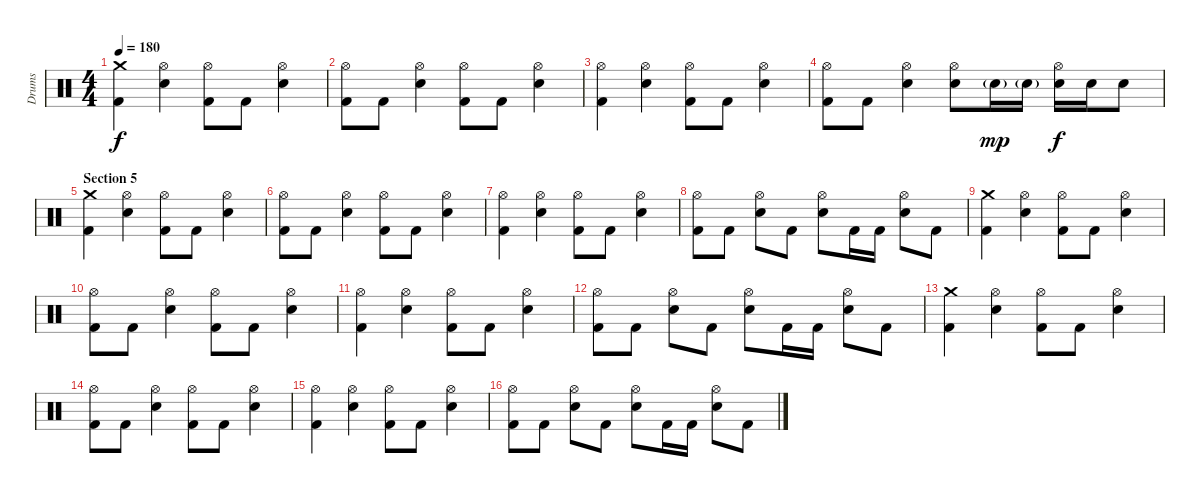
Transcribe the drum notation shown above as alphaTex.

\track ("Drums" "Drums") {instrument percussion}
\staff {score}
\articulation defaults
\ts (4 4)
\tempo 180
\clef neutral
\ks c
("Crash medium (hit)" "Kick (hit) 2").4{dy f} ("Hi-Hat (open)" "Electric Snare (hit)").4 ("Hi-Hat (open)" "Kick (hit) 2").8 "Kick (hit) 2".8 ("Hi-Hat (open)" "Electric Snare (hit)").4 |
("Hi-Hat (open)" "Kick (hit) 2").8 "Kick (hit) 2".8 ("Hi-Hat (open)" "Electric Snare (hit)").4 ("Hi-Hat (open)" "Kick (hit) 2").8 "Kick (hit) 2".8 ("Hi-Hat (open)" "Electric Snare (hit)").4 |
("Hi-Hat (open)" "Kick (hit) 2").4 ("Hi-Hat (open)" "Electric Snare (hit)").4 ("Hi-Hat (open)" "Kick (hit) 2").8 "Kick (hit) 2".8 ("Hi-Hat (open)" "Electric Snare (hit)").4 |
("Hi-Hat (open)" "Kick (hit) 2").8 "Kick (hit) 2".8 ("Hi-Hat (open)" "Electric Snare (hit)").4 ("Hi-Hat (open)" "Electric Snare (hit)").8 "Electric Snare (hit)"{g}.16{dy mp} "Electric Snare (hit)"{g}.16 ("Hi-Hat (open)" "Electric Snare (hit)").16{dy f} "Electric Snare (hit)".16 "Electric Snare (hit)".8 |
\section ("" "Section 5")
("Crash medium (hit)" "Kick (hit) 2").4 ("Hi-Hat (open)" "Electric Snare (hit)").4 ("Hi-Hat (open)" "Kick (hit) 2").8 "Kick (hit) 2".8 ("Hi-Hat (open)" "Electric Snare (hit)").4 |
("Hi-Hat (open)" "Kick (hit) 2").8 "Kick (hit) 2".8 ("Hi-Hat (open)" "Electric Snare (hit)").4 ("Hi-Hat (open)" "Kick (hit) 2").8 "Kick (hit) 2".8 ("Hi-Hat (open)" "Electric Snare (hit)").4 |
("Hi-Hat (open)" "Kick (hit) 2").4 ("Hi-Hat (open)" "Electric Snare (hit)").4 ("Hi-Hat (open)" "Kick (hit) 2").8 "Kick (hit) 2".8 ("Hi-Hat (open)" "Electric Snare (hit)").4 |
("Hi-Hat (open)" "Kick (hit) 2").8 "Kick (hit) 2".8 ("Hi-Hat (open)" "Electric Snare (hit)").8 "Kick (hit) 2".8 ("Hi-Hat (open)" "Electric Snare (hit)").8 "Kick (hit) 2".16 "Kick (hit) 2".16 ("Hi-Hat (open)" "Electric Snare (hit)").8 "Kick (hit) 2".8 |
("Crash medium (hit)" "Kick (hit) 2").4 ("Hi-Hat (open)" "Electric Snare (hit)").4 ("Hi-Hat (open)" "Kick (hit) 2").8 "Kick (hit) 2".8 ("Hi-Hat (open)" "Electric Snare (hit)").4 |
("Hi-Hat (open)" "Kick (hit) 2").8 "Kick (hit) 2".8 ("Hi-Hat (open)" "Electric Snare (hit)").4 ("Hi-Hat (open)" "Kick (hit) 2").8 "Kick (hit) 2".8 ("Hi-Hat (open)" "Electric Snare (hit)").4 |
("Hi-Hat (open)" "Kick (hit) 2").4 ("Hi-Hat (open)" "Electric Snare (hit)").4 ("Hi-Hat (open)" "Kick (hit) 2").8 "Kick (hit) 2".8 ("Hi-Hat (open)" "Electric Snare (hit)").4 |
("Hi-Hat (open)" "Kick (hit) 2").8 "Kick (hit) 2".8 ("Hi-Hat (open)" "Electric Snare (hit)").8 "Kick (hit) 2".8 ("Hi-Hat (open)" "Electric Snare (hit)").8 "Kick (hit) 2".16 "Kick (hit) 2".16 ("Hi-Hat (open)" "Electric Snare (hit)").8 "Kick (hit) 2".8 |
("Crash medium (hit)" "Kick (hit) 2").4 ("Hi-Hat (open)" "Electric Snare (hit)").4 ("Hi-Hat (open)" "Kick (hit) 2").8 "Kick (hit) 2".8 ("Hi-Hat (open)" "Electric Snare (hit)").4 |
("Hi-Hat (open)" "Kick (hit) 2").8 "Kick (hit) 2".8 ("Hi-Hat (open)" "Electric Snare (hit)").4 ("Hi-Hat (open)" "Kick (hit) 2").8 "Kick (hit) 2".8 ("Hi-Hat (open)" "Electric Snare (hit)").4 |
("Hi-Hat (open)" "Kick (hit) 2").4 ("Hi-Hat (open)" "Electric Snare (hit)").4 ("Hi-Hat (open)" "Kick (hit) 2").8 "Kick (hit) 2".8 ("Hi-Hat (open)" "Electric Snare (hit)").4 |
("Hi-Hat (open)" "Kick (hit) 2").8 "Kick (hit) 2".8 ("Hi-Hat (open)" "Electric Snare (hit)").8 "Kick (hit) 2".8 ("Hi-Hat (open)" "Electric Snare (hit)").8 "Kick (hit) 2".16 "Kick (hit) 2".16 ("Hi-Hat (open)" "Electric Snare (hit)").8 "Kick (hit) 2".8
